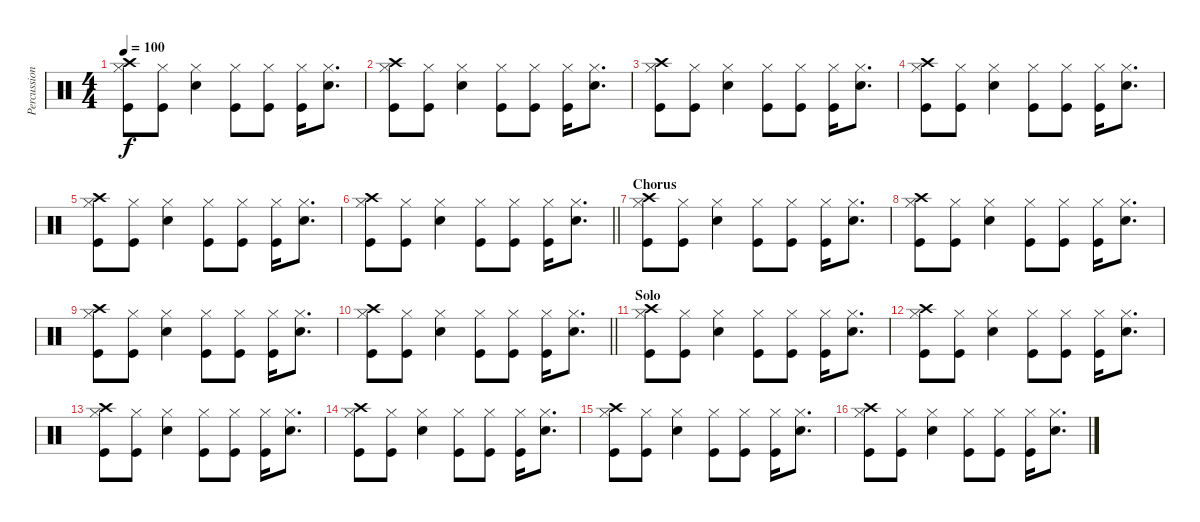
\track ("Percussion" "Percussion") {instrument percussion}
\staff {score}
\articulation defaults
\ts (4 4)
\tempo 100
\clef neutral
\ks c
("Crash high (hit)" "Kick (hit)" "Hi-Hat (closed)").8{dy f} ("Kick (hit)" "Hi-Hat (closed)").8 ("Snare (hit) 2" "Hi-Hat (closed)").4 ("Kick (hit)" "Hi-Hat (closed)").8 ("Kick (hit)" "Hi-Hat (closed)").8 ("Kick (hit)" "Hi-Hat (closed)").16 ("Snare (hit) 2" "Hi-Hat (closed)").8{d} |
("Crash high (hit)" "Kick (hit)" "Hi-Hat (closed)").8 ("Kick (hit)" "Hi-Hat (closed)").8 ("Snare (hit) 2" "Hi-Hat (closed)").4 ("Kick (hit)" "Hi-Hat (closed)").8 ("Kick (hit)" "Hi-Hat (closed)").8 ("Kick (hit)" "Hi-Hat (closed)").16 ("Snare (hit) 2" "Hi-Hat (closed)").8{d} |
("Crash high (hit)" "Kick (hit)" "Hi-Hat (closed)").8 ("Kick (hit)" "Hi-Hat (closed)").8 ("Snare (hit) 2" "Hi-Hat (closed)").4 ("Kick (hit)" "Hi-Hat (closed)").8 ("Kick (hit)" "Hi-Hat (closed)").8 ("Kick (hit)" "Hi-Hat (closed)").16 ("Snare (hit) 2" "Hi-Hat (closed)").8{d} |
("Crash high (hit)" "Kick (hit)" "Hi-Hat (closed)").8 ("Kick (hit)" "Hi-Hat (closed)").8 ("Snare (hit) 2" "Hi-Hat (closed)").4 ("Kick (hit)" "Hi-Hat (closed)").8 ("Kick (hit)" "Hi-Hat (closed)").8 ("Kick (hit)" "Hi-Hat (closed)").16 ("Snare (hit) 2" "Hi-Hat (closed)").8{d} |
("Crash high (hit)" "Kick (hit)" "Hi-Hat (closed)").8 ("Kick (hit)" "Hi-Hat (closed)").8 ("Snare (hit) 2" "Hi-Hat (closed)").4 ("Kick (hit)" "Hi-Hat (closed)").8 ("Kick (hit)" "Hi-Hat (closed)").8 ("Kick (hit)" "Hi-Hat (closed)").16 ("Snare (hit) 2" "Hi-Hat (closed)").8{d} |
\barLineRight lightlight
("Crash high (hit)" "Kick (hit)" "Hi-Hat (closed)").8 ("Kick (hit)" "Hi-Hat (closed)").8 ("Snare (hit) 2" "Hi-Hat (closed)").4 ("Kick (hit)" "Hi-Hat (closed)").8 ("Kick (hit)" "Hi-Hat (closed)").8 ("Kick (hit)" "Hi-Hat (closed)").16 ("Snare (hit) 2" "Hi-Hat (closed)").8{d} |
\section ("" "Chorus")
("Crash high (hit)" "Kick (hit)" "Hi-Hat (closed)").8 ("Kick (hit)" "Hi-Hat (closed)").8 ("Snare (hit) 2" "Hi-Hat (closed)").4 ("Kick (hit)" "Hi-Hat (closed)").8 ("Kick (hit)" "Hi-Hat (closed)").8 ("Kick (hit)" "Hi-Hat (closed)").16 ("Snare (hit) 2" "Hi-Hat (closed)").8{d} |
("Crash high (hit)" "Kick (hit)" "Hi-Hat (closed)").8 ("Kick (hit)" "Hi-Hat (closed)").8 ("Snare (hit) 2" "Hi-Hat (closed)").4 ("Kick (hit)" "Hi-Hat (closed)").8 ("Kick (hit)" "Hi-Hat (closed)").8 ("Kick (hit)" "Hi-Hat (closed)").16 ("Snare (hit) 2" "Hi-Hat (closed)").8{d} |
("Crash high (hit)" "Kick (hit)" "Hi-Hat (closed)").8 ("Kick (hit)" "Hi-Hat (closed)").8 ("Snare (hit) 2" "Hi-Hat (closed)").4 ("Kick (hit)" "Hi-Hat (closed)").8 ("Kick (hit)" "Hi-Hat (closed)").8 ("Kick (hit)" "Hi-Hat (closed)").16 ("Snare (hit) 2" "Hi-Hat (closed)").8{d} |
\barLineRight lightlight
("Crash high (hit)" "Kick (hit)" "Hi-Hat (closed)").8 ("Kick (hit)" "Hi-Hat (closed)").8 ("Snare (hit) 2" "Hi-Hat (closed)").4 ("Kick (hit)" "Hi-Hat (closed)").8 ("Kick (hit)" "Hi-Hat (closed)").8 ("Kick (hit)" "Hi-Hat (closed)").16 ("Snare (hit) 2" "Hi-Hat (closed)").8{d} |
\section ("" "Solo")
("Crash high (hit)" "Kick (hit)" "Hi-Hat (closed)").8 ("Kick (hit)" "Hi-Hat (closed)").8 ("Snare (hit) 2" "Hi-Hat (closed)").4 ("Kick (hit)" "Hi-Hat (closed)").8 ("Kick (hit)" "Hi-Hat (closed)").8 ("Kick (hit)" "Hi-Hat (closed)").16 ("Snare (hit) 2" "Hi-Hat (closed)").8{d} |
("Crash high (hit)" "Kick (hit)" "Hi-Hat (closed)").8 ("Kick (hit)" "Hi-Hat (closed)").8 ("Snare (hit) 2" "Hi-Hat (closed)").4 ("Kick (hit)" "Hi-Hat (closed)").8 ("Kick (hit)" "Hi-Hat (closed)").8 ("Kick (hit)" "Hi-Hat (closed)").16 ("Snare (hit) 2" "Hi-Hat (closed)").8{d} |
("Crash high (hit)" "Kick (hit)" "Hi-Hat (closed)").8 ("Kick (hit)" "Hi-Hat (closed)").8 ("Snare (hit) 2" "Hi-Hat (closed)").4 ("Kick (hit)" "Hi-Hat (closed)").8 ("Kick (hit)" "Hi-Hat (closed)").8 ("Kick (hit)" "Hi-Hat (closed)").16 ("Snare (hit) 2" "Hi-Hat (closed)").8{d} |
("Crash high (hit)" "Kick (hit)" "Hi-Hat (closed)").8 ("Kick (hit)" "Hi-Hat (closed)").8 ("Snare (hit) 2" "Hi-Hat (closed)").4 ("Kick (hit)" "Hi-Hat (closed)").8 ("Kick (hit)" "Hi-Hat (closed)").8 ("Kick (hit)" "Hi-Hat (closed)").16 ("Snare (hit) 2" "Hi-Hat (closed)").8{d} |
("Crash high (hit)" "Kick (hit)" "Hi-Hat (closed)").8 ("Kick (hit)" "Hi-Hat (closed)").8 ("Snare (hit) 2" "Hi-Hat (closed)").4 ("Kick (hit)" "Hi-Hat (closed)").8 ("Kick (hit)" "Hi-Hat (closed)").8 ("Kick (hit)" "Hi-Hat (closed)").16 ("Snare (hit) 2" "Hi-Hat (closed)").8{d} |
("Crash high (hit)" "Kick (hit)" "Hi-Hat (closed)").8 ("Kick (hit)" "Hi-Hat (closed)").8 ("Snare (hit) 2" "Hi-Hat (closed)").4 ("Kick (hit)" "Hi-Hat (closed)").8 ("Kick (hit)" "Hi-Hat (closed)").8 ("Kick (hit)" "Hi-Hat (closed)").16 ("Snare (hit) 2" "Hi-Hat (closed)").8{d}
